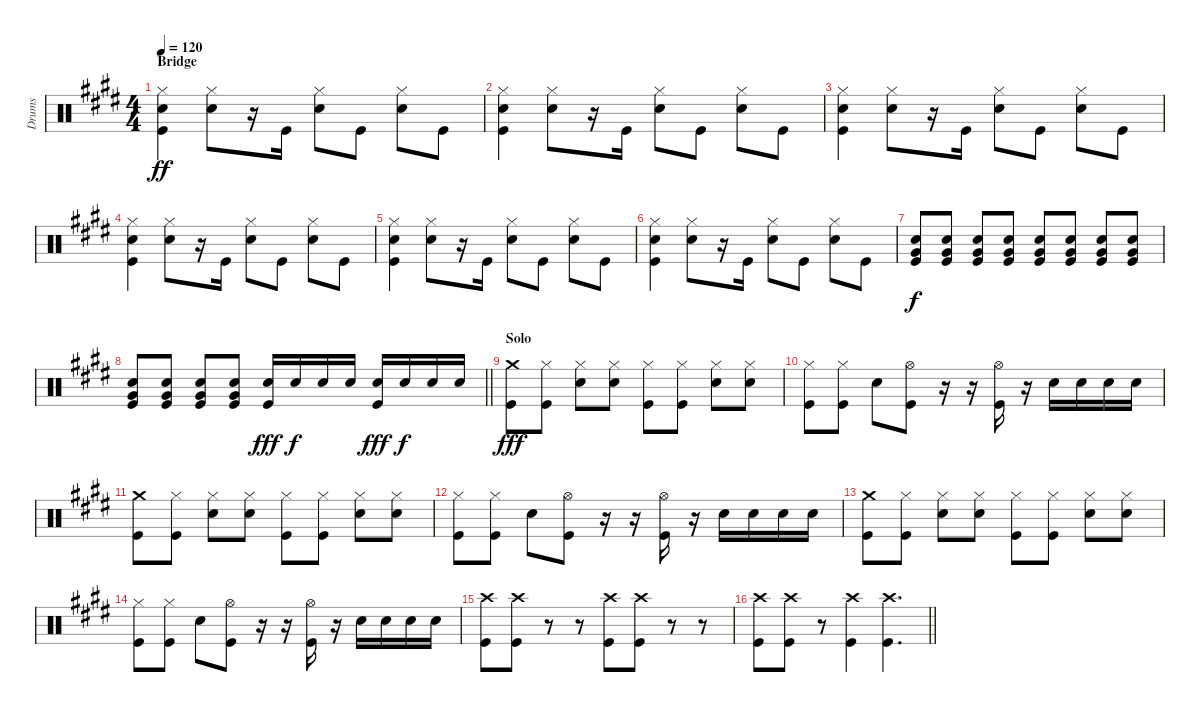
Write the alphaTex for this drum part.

\track ("Drums" "Drums") {instrument percussion}
\staff {score}
\articulation defaults
\ts (4 4)
\section ("" "Bridge")
\tempo 120
\clef neutral
\ks e
("Hi-Hat (closed)" "Snare (hit) 2" "Kick (hit)").4{dy ff} ("Hi-Hat (closed)" "Snare (hit) 2").8 r.16 "Kick (hit)".16 ("Hi-Hat (closed)" "Snare (hit) 2").8 "Kick (hit)".8 ("Hi-Hat (closed)" "Snare (hit) 2").8 "Kick (hit)".8 |
("Hi-Hat (closed)" "Snare (hit) 2" "Kick (hit)").4 ("Hi-Hat (closed)" "Snare (hit) 2").8 r.16 "Kick (hit)".16 ("Hi-Hat (closed)" "Snare (hit) 2").8 "Kick (hit)".8 ("Hi-Hat (closed)" "Snare (hit) 2").8 "Kick (hit)".8 |
("Hi-Hat (closed)" "Snare (hit) 2" "Kick (hit)").4 ("Hi-Hat (closed)" "Snare (hit) 2").8 r.16 "Kick (hit)".16 ("Hi-Hat (closed)" "Snare (hit) 2").8 "Kick (hit)".8 ("Hi-Hat (closed)" "Snare (hit) 2").8 "Kick (hit)".8 |
("Hi-Hat (closed)" "Snare (hit) 2" "Kick (hit)").4 ("Hi-Hat (closed)" "Snare (hit) 2").8 r.16 "Kick (hit)".16 ("Hi-Hat (closed)" "Snare (hit) 2").8 "Kick (hit)".8 ("Hi-Hat (closed)" "Snare (hit) 2").8 "Kick (hit)".8 |
("Hi-Hat (closed)" "Snare (hit) 2" "Kick (hit)").4 ("Hi-Hat (closed)" "Snare (hit) 2").8 r.16 "Kick (hit)".16 ("Hi-Hat (closed)" "Snare (hit) 2").8 "Kick (hit)".8 ("Hi-Hat (closed)" "Snare (hit) 2").8 "Kick (hit)".8 |
("Hi-Hat (closed)" "Snare (hit) 2" "Kick (hit)").4 ("Hi-Hat (closed)" "Snare (hit) 2").8 r.16 "Kick (hit)".16 ("Hi-Hat (closed)" "Snare (hit) 2").8 "Kick (hit)".8 ("Hi-Hat (closed)" "Snare (hit) 2").8 "Kick (hit)".8 |
("Very Low Tom (hit)" "Snare (hit) 2" "Kick (hit)").8{dy f} ("Very Low Tom (hit)" "Snare (hit) 2" "Kick (hit)").8 ("Very Low Tom (hit)" "Snare (hit) 2" "Kick (hit)").8 ("Very Low Tom (hit)" "Snare (hit) 2" "Kick (hit)").8 ("Very Low Tom (hit)" "Snare (hit) 2" "Kick (hit)").8 ("Very Low Tom (hit)" "Snare (hit) 2" "Kick (hit)").8 ("Very Low Tom (hit)" "Snare (hit) 2" "Kick (hit)").8 ("Very Low Tom (hit)" "Snare (hit) 2" "Kick (hit)").8 |
\barLineRight lightlight
("Very Low Tom (hit)" "Snare (hit) 2" "Kick (hit)").8 ("Very Low Tom (hit)" "Snare (hit) 2" "Kick (hit)").8 ("Very Low Tom (hit)" "Snare (hit) 2" "Kick (hit)").8 ("Very Low Tom (hit)" "Snare (hit) 2" "Kick (hit)").8 ("Snare (hit) 2" "Kick (hit)").16{dy fff} "Snare (hit) 2".16{dy f} "Snare (hit) 2".16 "Snare (hit) 2".16 ("Snare (hit) 2" "Kick (hit)").16{dy fff} "Snare (hit) 2".16{dy f} "Snare (hit) 2".16 "Snare (hit) 2".16 |
\section ("" "Solo")
("Crash medium (hit)" "Kick (hit)").8{dy fff} ("Hi-Hat (closed)" "Kick (hit)").8 ("Hi-Hat (closed)" "Snare (hit) 2").8 ("Hi-Hat (closed)" "Snare (hit) 2").8 ("Hi-Hat (closed)" "Kick (hit)").8 ("Hi-Hat (closed)" "Kick (hit)").8 ("Hi-Hat (closed)" "Snare (hit) 2").8 ("Hi-Hat (closed)" "Snare (hit) 2").8 |
("Hi-Hat (closed)" "Kick (hit)").8 ("Hi-Hat (closed)" "Kick (hit)").8 "Snare (hit) 2".8 ("Hi-Hat (open)" "Kick (hit)").8 r.16 r.16 ("Hi-Hat (open)" "Kick (hit)").16 r.16 "Snare (hit) 2".16 "Snare (hit) 2".16 "Snare (hit) 2".16 "Snare (hit) 2".16 |
("Crash medium (hit)" "Kick (hit)").8 ("Hi-Hat (closed)" "Kick (hit)").8 ("Hi-Hat (closed)" "Snare (hit) 2").8 ("Hi-Hat (closed)" "Snare (hit) 2").8 ("Hi-Hat (closed)" "Kick (hit)").8 ("Hi-Hat (closed)" "Kick (hit)").8 ("Hi-Hat (closed)" "Snare (hit) 2").8 ("Hi-Hat (closed)" "Snare (hit) 2").8 |
("Hi-Hat (closed)" "Kick (hit)").8 ("Hi-Hat (closed)" "Kick (hit)").8 "Snare (hit) 2".8 ("Hi-Hat (open)" "Kick (hit)").8 r.16 r.16 ("Hi-Hat (open)" "Kick (hit)").16 r.16 "Snare (hit) 2".16 "Snare (hit) 2".16 "Snare (hit) 2".16 "Snare (hit) 2".16 |
("Crash medium (hit)" "Kick (hit)").8 ("Hi-Hat (closed)" "Kick (hit)").8 ("Hi-Hat (closed)" "Snare (hit) 2").8 ("Hi-Hat (closed)" "Snare (hit) 2").8 ("Hi-Hat (closed)" "Kick (hit)").8 ("Hi-Hat (closed)" "Kick (hit)").8 ("Hi-Hat (closed)" "Snare (hit) 2").8 ("Hi-Hat (closed)" "Snare (hit) 2").8 |
("Hi-Hat (closed)" "Kick (hit)").8 ("Hi-Hat (closed)" "Kick (hit)").8 "Snare (hit) 2".8 ("Hi-Hat (open)" "Kick (hit)").8 r.16 r.16 ("Hi-Hat (open)" "Kick (hit)").16 r.16 "Snare (hit) 2".16 "Snare (hit) 2".16 "Snare (hit) 2".16 "Snare (hit) 2".16 |
("Crash high (hit)" "Kick (hit)").8 ("Crash high (hit)" "Kick (hit)").8 r.8 r.8 ("Crash high (hit)" "Kick (hit)").8 ("Crash high (hit)" "Kick (hit)").8 r.8 r.8 |
\barLineRight lightlight
("Crash high (hit)" "Kick (hit)").8 ("Crash high (hit)" "Kick (hit)").8 r.8 ("Crash high (hit)" "Kick (hit)").4 ("Crash high (hit)" "Kick (hit)").4{d}
